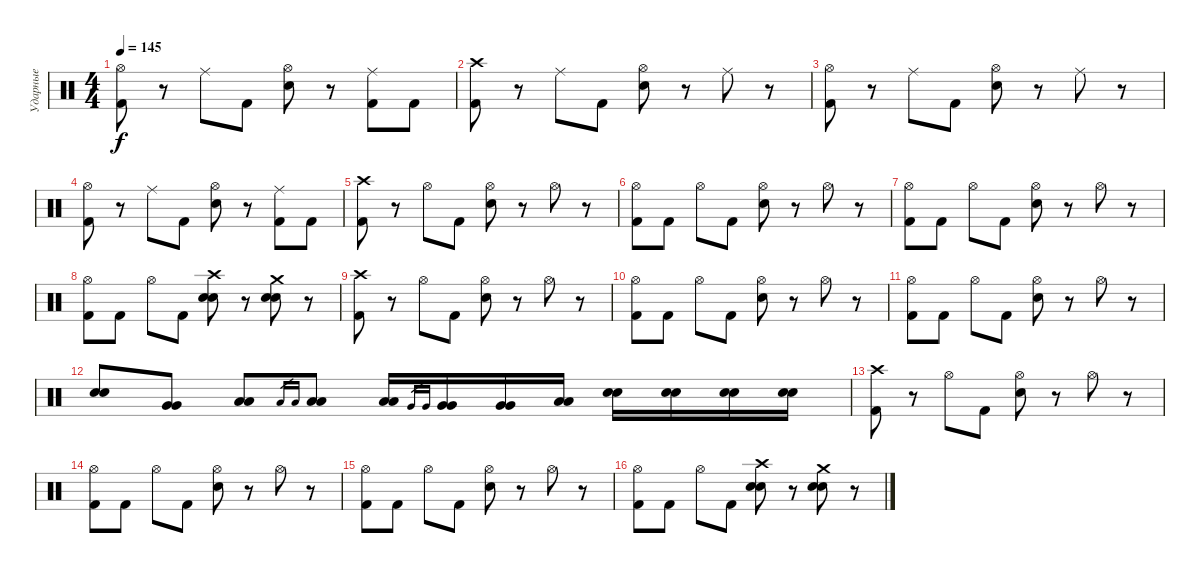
\track ("Ударные" "Ударные") {instrument percussion}
\staff {score}
\articulation defaults
\ts (4 4)
\tempo 145
\clef neutral
\ks c
("Hi-Hat (open)" "Kick (hit) 2").8{dy f} r.8 "Ride (middle)".8 "Kick (hit) 2".8 ("Hi-Hat (open)" "Snare (hit) 2").8 r.8 ("Ride (middle)" "Kick (hit) 2").8 "Kick (hit) 2".8 |
("Crash high (hit)" "Kick (hit) 2").8 r.8 "Ride (middle)".8 "Kick (hit) 2".8 ("Hi-Hat (open)" "Snare (hit) 2").8 r.8 "Ride (middle)".8 r.8 |
("Hi-Hat (open)" "Kick (hit) 2").8 r.8 "Ride (middle)".8 "Kick (hit) 2".8 ("Hi-Hat (open)" "Snare (hit) 2").8 r.8 "Ride (middle)".8 r.8 |
("Hi-Hat (open)" "Kick (hit) 2").8 r.8 "Ride (middle)".8 "Kick (hit) 2".8 ("Hi-Hat (open)" "Snare (hit) 2").8 r.8 ("Ride (middle)" "Kick (hit) 2").8 "Kick (hit) 2".8 |
("Crash high (hit)" "Kick (hit) 2").8 r.8 "Hi-Hat (open)".8 "Kick (hit) 2".8 ("Hi-Hat (open)" "Snare (hit) 2").8 r.8 "Hi-Hat (open)".8 r.8 |
("Hi-Hat (open)" "Kick (hit) 2").8 "Kick (hit) 2".8 "Hi-Hat (open)".8 "Kick (hit) 2".8 ("Hi-Hat (open)" "Snare (hit) 2").8 r.8 "Hi-Hat (open)".8 r.8 |
("Hi-Hat (open)" "Kick (hit) 2").8 "Kick (hit) 2".8 "Hi-Hat (open)".8 "Kick (hit) 2".8 ("Hi-Hat (open)" "Snare (hit) 2").8 r.8 "Hi-Hat (open)".8 r.8 |
("Hi-Hat (open)" "Kick (hit) 2").8 "Kick (hit) 2".8 "Hi-Hat (open)".8 "Kick (hit) 2".8 ("Crash high (hit)" "Snare (hit) 2" "Snare (hit) 2").8 r.8 ("Crash medium (hit)" "Snare (hit) 2" "Snare (hit) 2").8 r.8 |
("Crash high (hit)" "Kick (hit) 2").8 r.8 "Hi-Hat (open)".8 "Kick (hit) 2".8 ("Hi-Hat (open)" "Snare (hit) 2").8 r.8 "Hi-Hat (open)".8 r.8 |
("Hi-Hat (open)" "Kick (hit) 2").8 "Kick (hit) 2".8 "Hi-Hat (open)".8 "Kick (hit) 2".8 ("Hi-Hat (open)" "Snare (hit) 2").8 r.8 "Hi-Hat (open)".8 r.8 |
("Hi-Hat (open)" "Kick (hit) 2").8 "Kick (hit) 2".8 "Hi-Hat (open)".8 "Kick (hit) 2".8 ("Hi-Hat (open)" "Snare (hit) 2").8 r.8 "Hi-Hat (open)".8 r.8 |
("Snare (hit) 2" "Snare (hit) 2").8 ("Very Low Tom (hit)" "Very Low Tom (hit)").8 ("Low Floor Tom (hit)" "Low Floor Tom (hit)").8 "Low Tom (hit)".16{gr} "Low Tom (hit)".16{gr} ("Low Tom (hit)" "Low Tom (hit)").8 ("Low Tom (hit)" "Low Tom (hit)").16 "Very Low Tom (hit)".16{gr} "Very Low Tom (hit)".16{gr} ("Very Low Tom (hit)" "Very Low Tom (hit)").16 ("Very Low Tom (hit)" "Very Low Tom (hit)").16 ("Low Floor Tom (hit)" "Low Floor Tom (hit)").16 ("Snare (hit) 2" "Snare (hit) 2").16 ("Snare (hit) 2" "Snare (hit) 2").16 ("Snare (hit) 2" "Snare (hit) 2").16 ("Snare (hit) 2" "Snare (hit) 2").16 |
("Crash high (hit)" "Kick (hit) 2").8 r.8 "Hi-Hat (open)".8 "Kick (hit) 2".8 ("Hi-Hat (open)" "Snare (hit) 2").8 r.8 "Hi-Hat (open)".8 r.8 |
("Hi-Hat (open)" "Kick (hit) 2").8 "Kick (hit) 2".8 "Hi-Hat (open)".8 "Kick (hit) 2".8 ("Hi-Hat (open)" "Snare (hit) 2").8 r.8 "Hi-Hat (open)".8 r.8 |
("Hi-Hat (open)" "Kick (hit) 2").8 "Kick (hit) 2".8 "Hi-Hat (open)".8 "Kick (hit) 2".8 ("Hi-Hat (open)" "Snare (hit) 2").8 r.8 "Hi-Hat (open)".8 r.8 |
("Hi-Hat (open)" "Kick (hit) 2").8 "Kick (hit) 2".8 "Hi-Hat (open)".8 "Kick (hit) 2".8 ("Crash high (hit)" "Snare (hit) 2" "Snare (hit) 2").8 r.8 ("Crash medium (hit)" "Snare (hit) 2" "Snare (hit) 2").8 r.8
